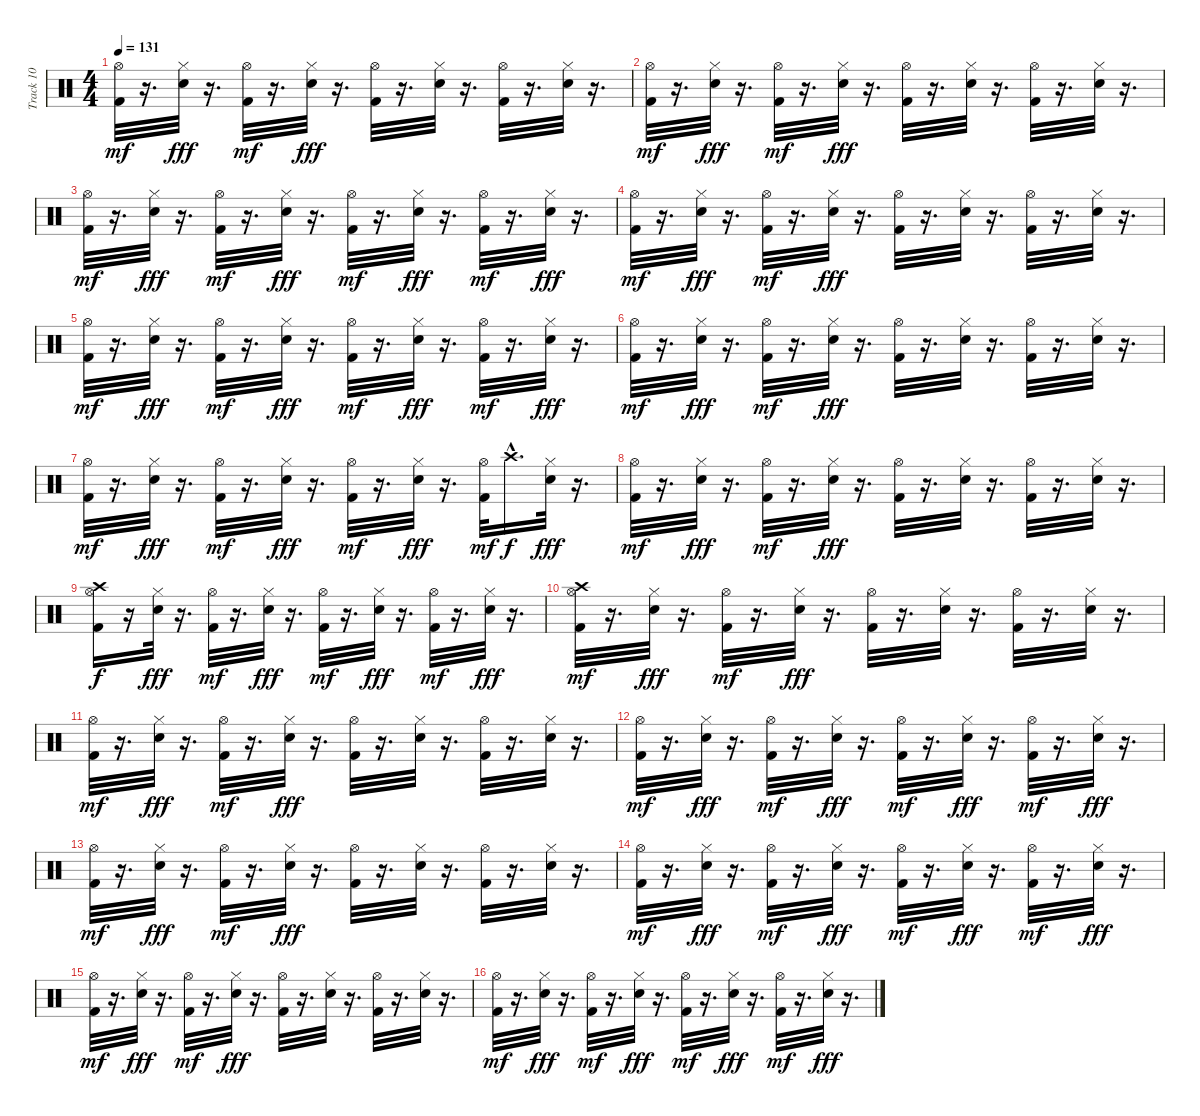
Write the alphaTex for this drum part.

\track ("Track 10" "Track 10") {instrument percussion}
\staff {score}
\articulation defaults
\ts (4 4)
\tempo 131
\clef neutral
\ks c
("Kick (hit) 2" "Hi-Hat (open)").32{dy mf} r.16{d} ("Snare (hit) 2" "Hi-Hat (closed)").32{dy fff} r.16{d} ("Kick (hit) 2" "Hi-Hat (open)").32{dy mf} r.16{d} ("Snare (hit) 2" "Hi-Hat (closed)").32{dy fff} r.16{d} ("Kick (hit) 2" "Hi-Hat (open)").32 r.16{d} ("Snare (hit) 2" "Hi-Hat (closed)").32 r.16{d} ("Kick (hit) 2" "Hi-Hat (open)").32 r.16{d} ("Snare (hit) 2" "Hi-Hat (closed)").32 r.16{d} |
("Kick (hit) 2" "Hi-Hat (open)").32{dy mf} r.16{d} ("Snare (hit) 2" "Hi-Hat (closed)").32{dy fff} r.16{d} ("Kick (hit) 2" "Hi-Hat (open)").32{dy mf} r.16{d} ("Snare (hit) 2" "Hi-Hat (closed)").32{dy fff} r.16{d} ("Kick (hit) 2" "Hi-Hat (open)").32 r.16{d} ("Snare (hit) 2" "Hi-Hat (closed)").32 r.16{d} ("Kick (hit) 2" "Hi-Hat (open)").32 r.16{d} ("Snare (hit) 2" "Hi-Hat (closed)").32 r.16{d} |
("Kick (hit) 2" "Hi-Hat (open)").32{dy mf} r.16{d} ("Snare (hit) 2" "Hi-Hat (closed)").32{dy fff} r.16{d} ("Kick (hit) 2" "Hi-Hat (open)").32{dy mf} r.16{d} ("Snare (hit) 2" "Hi-Hat (closed)").32{dy fff} r.16{d} ("Kick (hit) 2" "Hi-Hat (open)").32{dy mf} r.16{d} ("Snare (hit) 2" "Hi-Hat (closed)").32{dy fff} r.16{d} ("Kick (hit) 2" "Hi-Hat (open)").32{dy mf} r.16{d} ("Snare (hit) 2" "Hi-Hat (closed)").32{dy fff} r.16{d} |
("Kick (hit) 2" "Hi-Hat (open)").32{dy mf} r.16{d} ("Snare (hit) 2" "Hi-Hat (closed)").32{dy fff} r.16{d} ("Kick (hit) 2" "Hi-Hat (open)").32{dy mf} r.16{d} ("Snare (hit) 2" "Hi-Hat (closed)").32{dy fff} r.16{d} ("Kick (hit) 2" "Hi-Hat (open)").32 r.16{d} ("Snare (hit) 2" "Hi-Hat (closed)").32 r.16{d} ("Kick (hit) 2" "Hi-Hat (open)").32 r.16{d} ("Snare (hit) 2" "Hi-Hat (closed)").32 r.16{d} |
("Kick (hit) 2" "Hi-Hat (open)").32{dy mf} r.16{d} ("Snare (hit) 2" "Hi-Hat (closed)").32{dy fff} r.16{d} ("Kick (hit) 2" "Hi-Hat (open)").32{dy mf} r.16{d} ("Snare (hit) 2" "Hi-Hat (closed)").32{dy fff} r.16{d} ("Kick (hit) 2" "Hi-Hat (open)").32{dy mf} r.16{d} ("Snare (hit) 2" "Hi-Hat (closed)").32{dy fff} r.16{d} ("Kick (hit) 2" "Hi-Hat (open)").32{dy mf} r.16{d} ("Snare (hit) 2" "Hi-Hat (closed)").32{dy fff} r.16{d} |
("Kick (hit) 2" "Hi-Hat (open)").32{dy mf} r.16{d} ("Snare (hit) 2" "Hi-Hat (closed)").32{dy fff} r.16{d} ("Kick (hit) 2" "Hi-Hat (open)").32{dy mf} r.16{d} ("Snare (hit) 2" "Hi-Hat (closed)").32{dy fff} r.16{d} ("Kick (hit) 2" "Hi-Hat (open)").32 r.16{d} ("Snare (hit) 2" "Hi-Hat (closed)").32 r.16{d} ("Kick (hit) 2" "Hi-Hat (open)").32 r.16{d} ("Snare (hit) 2" "Hi-Hat (closed)").32 r.16{d} |
("Kick (hit) 2" "Hi-Hat (open)").32{dy mf} r.16{d} ("Snare (hit) 2" "Hi-Hat (closed)").32{dy fff} r.16{d} ("Kick (hit) 2" "Hi-Hat (open)").32{dy mf} r.16{d} ("Snare (hit) 2" "Hi-Hat (closed)").32{dy fff} r.16{d} ("Kick (hit) 2" "Hi-Hat (open)").32{dy mf} r.16{d} ("Snare (hit) 2" "Hi-Hat (closed)").32{dy fff} r.16{d} ("Kick (hit) 2" "Hi-Hat (open)").32{dy mf} "Crash high (hit)"{hac}.16{d dy f} ("Snare (hit) 2" "Hi-Hat (closed)").32{dy fff} r.16{d} |
("Kick (hit) 2" "Hi-Hat (open)").32{dy mf} r.16{d} ("Snare (hit) 2" "Hi-Hat (closed)").32{dy fff} r.16{d} ("Kick (hit) 2" "Hi-Hat (open)").32{dy mf} r.16{d} ("Snare (hit) 2" "Hi-Hat (closed)").32{dy fff} r.16{d} ("Kick (hit) 2" "Hi-Hat (open)").32 r.16{d} ("Snare (hit) 2" "Hi-Hat (closed)").32 r.16{d} ("Kick (hit) 2" "Hi-Hat (open)").32 r.16{d} ("Snare (hit) 2" "Hi-Hat (closed)").32 r.16{d} |
("Crash high (hit)" "Kick (hit) 2" "Hi-Hat (open)").16{dy f} r.16 ("Snare (hit) 2" "Hi-Hat (closed)").32{dy fff} r.16{d} ("Kick (hit) 2" "Hi-Hat (open)").32{dy mf} r.16{d} ("Snare (hit) 2" "Hi-Hat (closed)").32{dy fff} r.16{d} ("Kick (hit) 2" "Hi-Hat (open)").32{dy mf} r.16{d} ("Snare (hit) 2" "Hi-Hat (closed)").32{dy fff} r.16{d} ("Kick (hit) 2" "Hi-Hat (open)").32{dy mf} r.16{d} ("Snare (hit) 2" "Hi-Hat (closed)").32{dy fff} r.16{d} |
("Crash high (hit)" "Kick (hit) 2" "Hi-Hat (open)").32{dy mf} r.16{d} ("Snare (hit) 2" "Hi-Hat (closed)").32{dy fff} r.16{d} ("Kick (hit) 2" "Hi-Hat (open)").32{dy mf} r.16{d} ("Snare (hit) 2" "Hi-Hat (closed)").32{dy fff} r.16{d} ("Kick (hit) 2" "Hi-Hat (open)").32 r.16{d} ("Snare (hit) 2" "Hi-Hat (closed)").32 r.16{d} ("Kick (hit) 2" "Hi-Hat (open)").32 r.16{d} ("Snare (hit) 2" "Hi-Hat (closed)").32 r.16{d} |
("Kick (hit) 2" "Hi-Hat (open)").32{dy mf} r.16{d} ("Snare (hit) 2" "Hi-Hat (closed)").32{dy fff} r.16{d} ("Kick (hit) 2" "Hi-Hat (open)").32{dy mf} r.16{d} ("Snare (hit) 2" "Hi-Hat (closed)").32{dy fff} r.16{d} ("Kick (hit) 2" "Hi-Hat (open)").32 r.16{d} ("Snare (hit) 2" "Hi-Hat (closed)").32 r.16{d} ("Kick (hit) 2" "Hi-Hat (open)").32 r.16{d} ("Snare (hit) 2" "Hi-Hat (closed)").32 r.16{d} |
("Kick (hit) 2" "Hi-Hat (open)").32{dy mf} r.16{d} ("Snare (hit) 2" "Hi-Hat (closed)").32{dy fff} r.16{d} ("Kick (hit) 2" "Hi-Hat (open)").32{dy mf} r.16{d} ("Snare (hit) 2" "Hi-Hat (closed)").32{dy fff} r.16{d} ("Kick (hit) 2" "Hi-Hat (open)").32{dy mf} r.16{d} ("Snare (hit) 2" "Hi-Hat (closed)").32{dy fff} r.16{d} ("Kick (hit) 2" "Hi-Hat (open)").32{dy mf} r.16{d} ("Snare (hit) 2" "Hi-Hat (closed)").32{dy fff} r.16{d} |
("Kick (hit) 2" "Hi-Hat (open)").32{dy mf} r.16{d} ("Snare (hit) 2" "Hi-Hat (closed)").32{dy fff} r.16{d} ("Kick (hit) 2" "Hi-Hat (open)").32{dy mf} r.16{d} ("Snare (hit) 2" "Hi-Hat (closed)").32{dy fff} r.16{d} ("Kick (hit) 2" "Hi-Hat (open)").32 r.16{d} ("Snare (hit) 2" "Hi-Hat (closed)").32 r.16{d} ("Kick (hit) 2" "Hi-Hat (open)").32 r.16{d} ("Snare (hit) 2" "Hi-Hat (closed)").32 r.16{d} |
("Kick (hit) 2" "Hi-Hat (open)").32{dy mf} r.16{d} ("Snare (hit) 2" "Hi-Hat (closed)").32{dy fff} r.16{d} ("Kick (hit) 2" "Hi-Hat (open)").32{dy mf} r.16{d} ("Snare (hit) 2" "Hi-Hat (closed)").32{dy fff} r.16{d} ("Kick (hit) 2" "Hi-Hat (open)").32{dy mf} r.16{d} ("Snare (hit) 2" "Hi-Hat (closed)").32{dy fff} r.16{d} ("Kick (hit) 2" "Hi-Hat (open)").32{dy mf} r.16{d} ("Snare (hit) 2" "Hi-Hat (closed)").32{dy fff} r.16{d} |
("Kick (hit) 2" "Hi-Hat (open)").32{dy mf} r.16{d} ("Snare (hit) 2" "Hi-Hat (closed)").32{dy fff} r.16{d} ("Kick (hit) 2" "Hi-Hat (open)").32{dy mf} r.16{d} ("Snare (hit) 2" "Hi-Hat (closed)").32{dy fff} r.16{d} ("Kick (hit) 2" "Hi-Hat (open)").32 r.16{d} ("Snare (hit) 2" "Hi-Hat (closed)").32 r.16{d} ("Kick (hit) 2" "Hi-Hat (open)").32 r.16{d} ("Snare (hit) 2" "Hi-Hat (closed)").32 r.16{d} |
("Kick (hit) 2" "Hi-Hat (open)").32{dy mf} r.16{d} ("Snare (hit) 2" "Hi-Hat (closed)").32{dy fff} r.16{d} ("Kick (hit) 2" "Hi-Hat (open)").32{dy mf} r.16{d} ("Snare (hit) 2" "Hi-Hat (closed)").32{dy fff} r.16{d} ("Kick (hit) 2" "Hi-Hat (open)").32{dy mf} r.16{d} ("Snare (hit) 2" "Hi-Hat (closed)").32{dy fff} r.16{d} ("Kick (hit) 2" "Hi-Hat (open)").32{dy mf} r.16{d} ("Snare (hit) 2" "Hi-Hat (closed)").32{dy fff} r.16{d}
